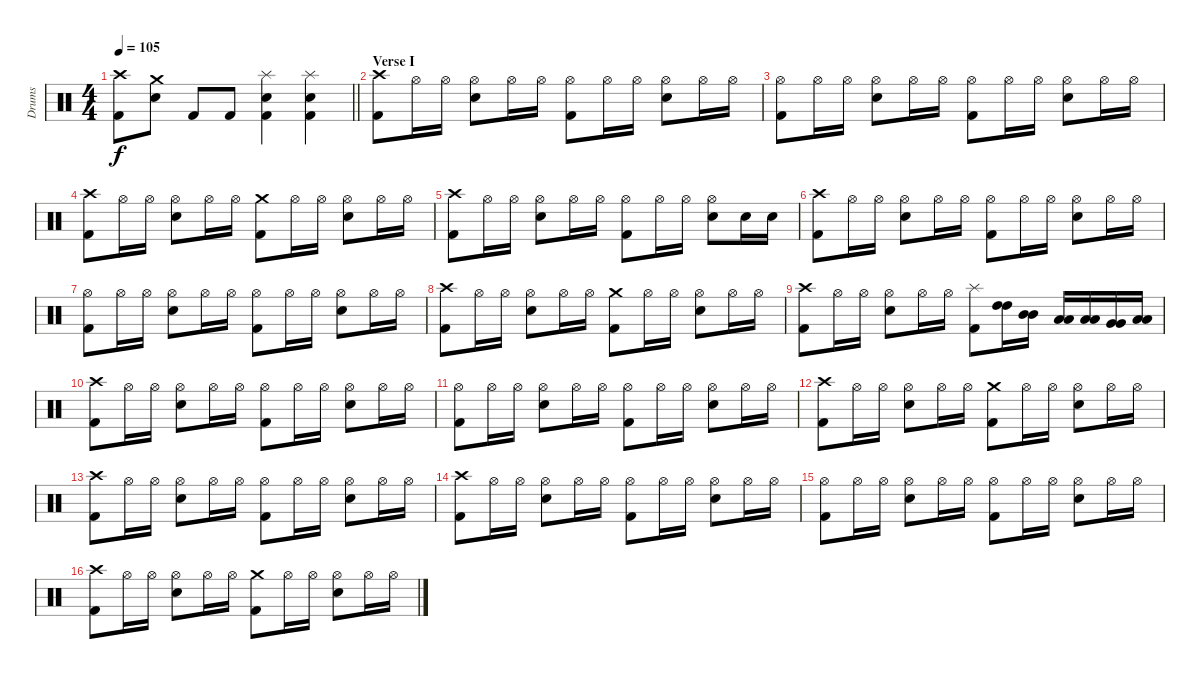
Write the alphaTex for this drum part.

\track ("Drums" "Drums") {instrument percussion}
\staff {score}
\articulation defaults
\ts (4 4)
\tempo 105
\clef neutral
\barLineRight lightlight
\ks c
("Crash high (hit)" "Kick (hit) 2").8{dy f} ("Crash medium (hit)" "Electric Snare (hit)").8 "Kick (hit) 2".8 "Kick (hit) 2".8 ("Splash (hit)" "Electric Snare (hit)" "Kick (hit) 2").4 ("Splash (hit)" "Electric Snare (hit)" "Kick (hit) 2").4 |
\section ("" "Verse I")
("Crash high (hit)" "Kick (hit) 2").8 "Hi-Hat (open)".16 "Hi-Hat (open)".16 ("Hi-Hat (open)" "Electric Snare (hit)").8 "Hi-Hat (open)".16 "Hi-Hat (open)".16 ("Hi-Hat (open)" "Kick (hit) 2").8 "Hi-Hat (open)".16 "Hi-Hat (open)".16 ("Hi-Hat (open)" "Electric Snare (hit)").8 "Hi-Hat (open)".16 "Hi-Hat (open)".16 |
("Hi-Hat (open)" "Kick (hit) 2").8 "Hi-Hat (open)".16 "Hi-Hat (open)".16 ("Hi-Hat (open)" "Electric Snare (hit)").8 "Hi-Hat (open)".16 "Hi-Hat (open)".16 ("Hi-Hat (open)" "Kick (hit) 2").8 "Hi-Hat (open)".16 "Hi-Hat (open)".16 ("Hi-Hat (open)" "Electric Snare (hit)").8 "Hi-Hat (open)".16 "Hi-Hat (open)".16 |
("Crash high (hit)" "Kick (hit) 2").8 "Hi-Hat (open)".16 "Hi-Hat (open)".16 ("Hi-Hat (open)" "Electric Snare (hit)").8 "Hi-Hat (open)".16 "Hi-Hat (open)".16 ("Crash medium (hit)" "Kick (hit) 2").8 "Hi-Hat (open)".16 "Hi-Hat (open)".16 ("Hi-Hat (open)" "Electric Snare (hit)").8 "Hi-Hat (open)".16 "Hi-Hat (open)".16 |
("Crash high (hit)" "Kick (hit) 2").8 "Hi-Hat (open)".16 "Hi-Hat (open)".16 ("Hi-Hat (open)" "Electric Snare (hit)").8 "Hi-Hat (open)".16 "Hi-Hat (open)".16 ("Hi-Hat (open)" "Kick (hit) 2").8 "Hi-Hat (open)".16 "Hi-Hat (open)".16 ("Hi-Hat (open)" "Electric Snare (hit)").8 "Electric Snare (hit)".16 "Electric Snare (hit)".16 |
("Crash high (hit)" "Kick (hit) 2").8 "Hi-Hat (open)".16 "Hi-Hat (open)".16 ("Hi-Hat (open)" "Electric Snare (hit)").8 "Hi-Hat (open)".16 "Hi-Hat (open)".16 ("Hi-Hat (open)" "Kick (hit) 2").8 "Hi-Hat (open)".16 "Hi-Hat (open)".16 ("Hi-Hat (open)" "Electric Snare (hit)").8 "Hi-Hat (open)".16 "Hi-Hat (open)".16 |
("Hi-Hat (open)" "Kick (hit) 2").8 "Hi-Hat (open)".16 "Hi-Hat (open)".16 ("Hi-Hat (open)" "Electric Snare (hit)").8 "Hi-Hat (open)".16 "Hi-Hat (open)".16 ("Hi-Hat (open)" "Kick (hit) 2").8 "Hi-Hat (open)".16 "Hi-Hat (open)".16 ("Hi-Hat (open)" "Electric Snare (hit)").8 "Hi-Hat (open)".16 "Hi-Hat (open)".16 |
("Crash high (hit)" "Kick (hit) 2").8 "Hi-Hat (open)".16 "Hi-Hat (open)".16 ("Hi-Hat (open)" "Electric Snare (hit)").8 "Hi-Hat (open)".16 "Hi-Hat (open)".16 ("Crash medium (hit)" "Kick (hit) 2").8 "Hi-Hat (open)".16 "Hi-Hat (open)".16 ("Hi-Hat (open)" "Electric Snare (hit)").8 "Hi-Hat (open)".16 "Hi-Hat (open)".16 |
("Crash high (hit)" "Kick (hit) 2").8 "Hi-Hat (open)".16 "Hi-Hat (open)".16 ("Hi-Hat (open)" "Electric Snare (hit)").8 "Hi-Hat (open)".16 "Hi-Hat (open)".16 ("Splash (hit)" "Kick (hit) 2").8 ("High Tom (hit)" "High Tom (hit)").16 ("Mid Tom (hit)" "Mid Tom (hit)").16 ("Low Tom (hit)" "Low Tom (hit)").16 ("Low Tom (hit)" "Low Tom (hit)").16 ("Very Low Tom (hit)" "Very Low Tom (hit)").16 ("Low Floor Tom (hit)" "Low Floor Tom (hit)").16 |
("Crash high (hit)" "Kick (hit) 2").8 "Hi-Hat (open)".16 "Hi-Hat (open)".16 ("Hi-Hat (open)" "Electric Snare (hit)").8 "Hi-Hat (open)".16 "Hi-Hat (open)".16 ("Hi-Hat (open)" "Kick (hit) 2").8 "Hi-Hat (open)".16 "Hi-Hat (open)".16 ("Hi-Hat (open)" "Electric Snare (hit)").8 "Hi-Hat (open)".16 "Hi-Hat (open)".16 |
("Hi-Hat (open)" "Kick (hit) 2").8 "Hi-Hat (open)".16 "Hi-Hat (open)".16 ("Hi-Hat (open)" "Electric Snare (hit)").8 "Hi-Hat (open)".16 "Hi-Hat (open)".16 ("Hi-Hat (open)" "Kick (hit) 2").8 "Hi-Hat (open)".16 "Hi-Hat (open)".16 ("Hi-Hat (open)" "Electric Snare (hit)").8 "Hi-Hat (open)".16 "Hi-Hat (open)".16 |
("Crash high (hit)" "Kick (hit) 2").8 "Hi-Hat (open)".16 "Hi-Hat (open)".16 ("Hi-Hat (open)" "Electric Snare (hit)").8 "Hi-Hat (open)".16 "Hi-Hat (open)".16 ("Crash medium (hit)" "Kick (hit) 2").8 "Hi-Hat (open)".16 "Hi-Hat (open)".16 ("Hi-Hat (open)" "Electric Snare (hit)").8 "Hi-Hat (open)".16 "Hi-Hat (open)".16 |
("Crash high (hit)" "Kick (hit) 2").8 "Hi-Hat (open)".16 "Hi-Hat (open)".16 ("Hi-Hat (open)" "Electric Snare (hit)").8 "Hi-Hat (open)".16 "Hi-Hat (open)".16 ("Hi-Hat (open)" "Kick (hit) 2").8 "Hi-Hat (open)".16 "Hi-Hat (open)".16 ("Hi-Hat (open)" "Electric Snare (hit)").8 "Hi-Hat (open)".16 "Hi-Hat (open)".16 |
("Crash high (hit)" "Kick (hit) 2").8 "Hi-Hat (open)".16 "Hi-Hat (open)".16 ("Hi-Hat (open)" "Electric Snare (hit)").8 "Hi-Hat (open)".16 "Hi-Hat (open)".16 ("Hi-Hat (open)" "Kick (hit) 2").8 "Hi-Hat (open)".16 "Hi-Hat (open)".16 ("Hi-Hat (open)" "Electric Snare (hit)").8 "Hi-Hat (open)".16 "Hi-Hat (open)".16 |
("Hi-Hat (open)" "Kick (hit) 2").8 "Hi-Hat (open)".16 "Hi-Hat (open)".16 ("Hi-Hat (open)" "Electric Snare (hit)").8 "Hi-Hat (open)".16 "Hi-Hat (open)".16 ("Hi-Hat (open)" "Kick (hit) 2").8 "Hi-Hat (open)".16 "Hi-Hat (open)".16 ("Hi-Hat (open)" "Electric Snare (hit)").8 "Hi-Hat (open)".16 "Hi-Hat (open)".16 |
("Crash high (hit)" "Kick (hit) 2").8 "Hi-Hat (open)".16 "Hi-Hat (open)".16 ("Hi-Hat (open)" "Electric Snare (hit)").8 "Hi-Hat (open)".16 "Hi-Hat (open)".16 ("Crash medium (hit)" "Kick (hit) 2").8 "Hi-Hat (open)".16 "Hi-Hat (open)".16 ("Hi-Hat (open)" "Electric Snare (hit)").8 "Hi-Hat (open)".16 "Hi-Hat (open)".16
